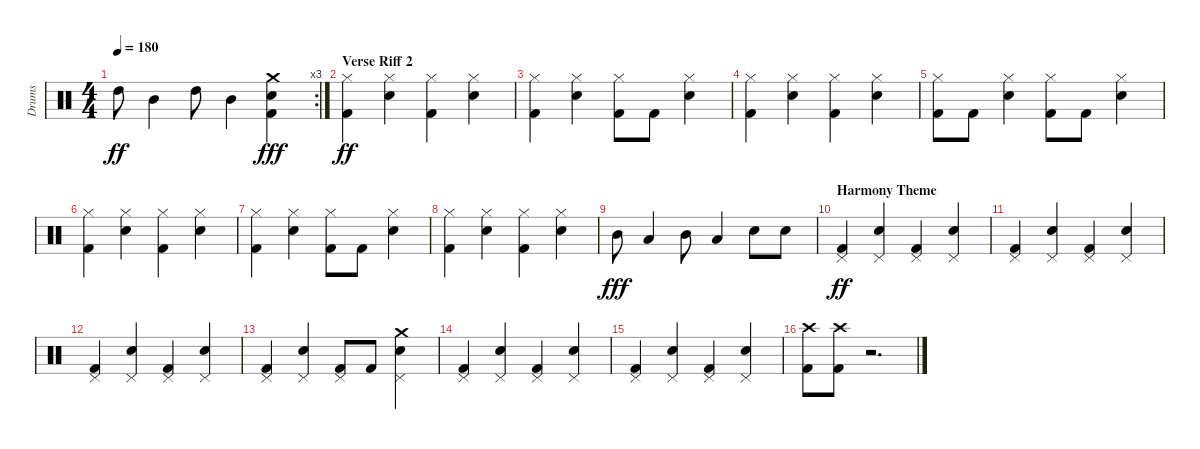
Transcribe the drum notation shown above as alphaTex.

\track ("Drums" "Drums") {instrument percussion}
\staff {score}
\articulation defaults
\rc 3
\ts (4 4)
\tempo 180
\clef neutral
\ks c "High Tom (hit)".8{dy ff} "Mid Tom (hit)".4 "High Tom (hit)".8 "Mid Tom (hit)".4
("Crash medium (hit)" "Snare (hit) 2" "Kick (hit) 2").4{dy fff} |
\section ("" "Verse Riff 2")
("Hi-Hat (closed)" "Kick (hit) 2").4{dy ff} ("Hi-Hat (closed)" "Snare (hit) 2").4 ("Hi-Hat (closed)" "Kick (hit) 2").4 ("Hi-Hat (closed)" "Snare (hit) 2").4 |
("Hi-Hat (closed)" "Kick (hit) 2").4 ("Hi-Hat (closed)" "Snare (hit) 2").4 ("Hi-Hat (closed)" "Kick (hit) 2").8 "Kick (hit) 2".8 ("Hi-Hat (closed)" "Snare (hit) 2").4 |
("Hi-Hat (closed)" "Kick (hit) 2").4 ("Hi-Hat (closed)" "Snare (hit) 2").4 ("Hi-Hat (closed)" "Kick (hit) 2").4 ("Hi-Hat (closed)" "Snare (hit) 2").4 |
("Hi-Hat (closed)" "Kick (hit) 2").8 "Kick (hit) 2".8 ("Hi-Hat (closed)" "Snare (hit) 2").4 ("Hi-Hat (closed)" "Kick (hit) 2").8 "Kick (hit) 2".8 ("Hi-Hat (closed)" "Snare (hit) 2").4 |
("Hi-Hat (closed)" "Kick (hit) 2").4 ("Hi-Hat (closed)" "Snare (hit) 2").4 ("Hi-Hat (closed)" "Kick (hit) 2").4 ("Hi-Hat (closed)" "Snare (hit) 2").4 |
("Hi-Hat (closed)" "Kick (hit) 2").4 ("Hi-Hat (closed)" "Snare (hit) 2").4 ("Hi-Hat (closed)" "Kick (hit) 2").8 "Kick (hit) 2".8 ("Hi-Hat (closed)" "Snare (hit) 2").4 |
("Hi-Hat (closed)" "Kick (hit) 2").4 ("Hi-Hat (closed)" "Snare (hit) 2").4 ("Hi-Hat (closed)" "Kick (hit) 2").4 ("Hi-Hat (closed)" "Snare (hit) 2").4 |
"Mid Tom (hit)".8{dy fff} "Low Tom (hit)".4 "Mid Tom (hit)".8 "Low Tom (hit)".4 "Snare (hit) 2".8 "Snare (hit) 2".8 |
\section ("" "Harmony Theme")
("Pedal Hi-Hat (hit)" "Kick (hit) 2").4{dy ff} ("Pedal Hi-Hat (hit)" "Snare (hit) 2").4 ("Pedal Hi-Hat (hit)" "Kick (hit) 2").4 ("Pedal Hi-Hat (hit)" "Snare (hit) 2").4 |
("Pedal Hi-Hat (hit)" "Kick (hit) 2").4 ("Pedal Hi-Hat (hit)" "Snare (hit) 2").4 ("Pedal Hi-Hat (hit)" "Kick (hit) 2").4 ("Pedal Hi-Hat (hit)" "Snare (hit) 2").4 |
("Pedal Hi-Hat (hit)" "Kick (hit) 2").4 ("Pedal Hi-Hat (hit)" "Snare (hit) 2").4 ("Pedal Hi-Hat (hit)" "Kick (hit) 2").4 ("Pedal Hi-Hat (hit)" "Snare (hit) 2").4 |
("Pedal Hi-Hat (hit)" "Kick (hit) 2").4 ("Pedal Hi-Hat (hit)" "Snare (hit) 2").4 ("Pedal Hi-Hat (hit)" "Kick (hit) 2").8 "Kick (hit) 2".8 ("Pedal Hi-Hat (hit)" "Crash medium (hit)" "Snare (hit) 2").4 |
("Pedal Hi-Hat (hit)" "Kick (hit) 2").4 ("Pedal Hi-Hat (hit)" "Snare (hit) 2").4 ("Pedal Hi-Hat (hit)" "Kick (hit) 2").4 ("Pedal Hi-Hat (hit)" "Snare (hit) 2").4 |
("Pedal Hi-Hat (hit)" "Kick (hit) 2").4 ("Pedal Hi-Hat (hit)" "Snare (hit) 2").4 ("Pedal Hi-Hat (hit)" "Kick (hit) 2").4 ("Pedal Hi-Hat (hit)" "Snare (hit) 2").4 |
("Crash high (hit)" "Kick (hit) 2").8 ("Crash high (hit)" "Kick (hit) 2").8 r.2{d}
